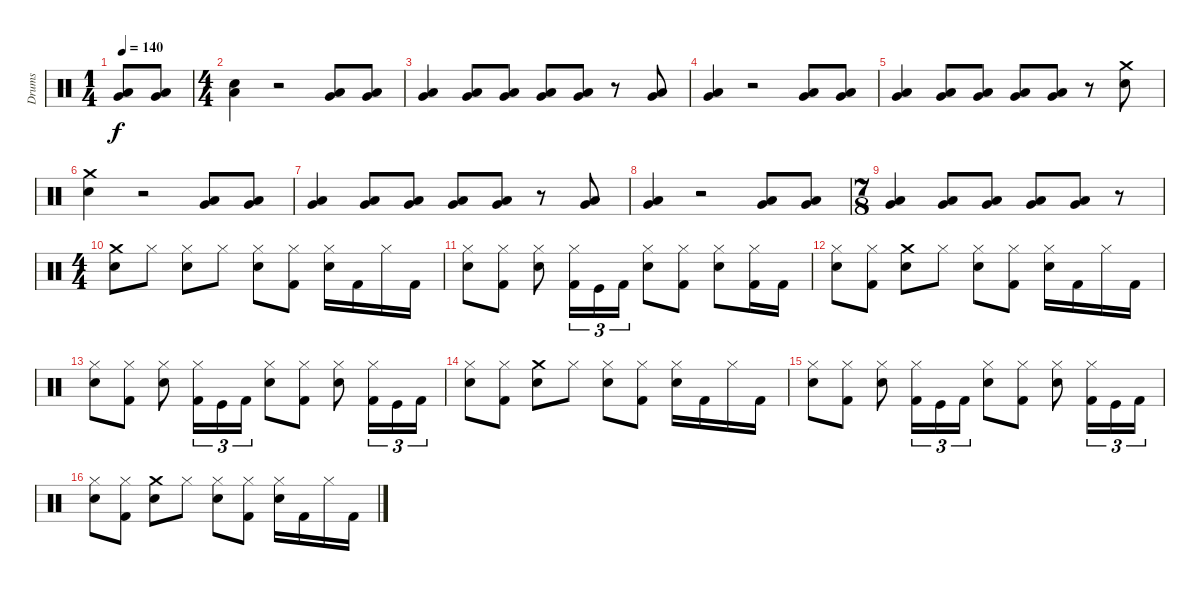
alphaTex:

\track ("Drums" "Drums") {instrument percussion}
\staff {score}
\articulation defaults
\ts (1 4)
\tempo 140
\clef neutral
\ks c
("Very Low Tom (hit)" "Low Tom (hit)").8{dy f} ("Very Low Tom (hit)" "Low Tom (hit)").8 |
\ts (4 4)
("Snare (hit) 2" "Low Tom (hit)").4 r.2 ("Very Low Tom (hit)" "Low Tom (hit)").8 ("Very Low Tom (hit)" "Low Tom (hit)").8 |
("Very Low Tom (hit)" "Low Tom (hit)").4 ("Very Low Tom (hit)" "Low Tom (hit)").8 ("Very Low Tom (hit)" "Low Tom (hit)").8 ("Very Low Tom (hit)" "Low Tom (hit)").8 ("Very Low Tom (hit)" "Low Tom (hit)").8 r.8 ("Very Low Tom (hit)" "Low Tom (hit)").8 |
("Very Low Tom (hit)" "Low Tom (hit)").4 r.2 ("Very Low Tom (hit)" "Low Tom (hit)").8 ("Very Low Tom (hit)" "Low Tom (hit)").8 |
("Very Low Tom (hit)" "Low Tom (hit)").4 ("Very Low Tom (hit)" "Low Tom (hit)").8 ("Very Low Tom (hit)" "Low Tom (hit)").8 ("Very Low Tom (hit)" "Low Tom (hit)").8 ("Very Low Tom (hit)" "Low Tom (hit)").8 r.8 ("Snare (hit) 2" "Crash medium (hit)").8 |
("Snare (hit) 2" "Crash medium (hit)").4 r.2 ("Very Low Tom (hit)" "Low Tom (hit)").8 ("Very Low Tom (hit)" "Low Tom (hit)").8 |
("Very Low Tom (hit)" "Low Tom (hit)").4 ("Very Low Tom (hit)" "Low Tom (hit)").8 ("Very Low Tom (hit)" "Low Tom (hit)").8 ("Very Low Tom (hit)" "Low Tom (hit)").8 ("Very Low Tom (hit)" "Low Tom (hit)").8 r.8 ("Very Low Tom (hit)" "Low Tom (hit)").8 |
("Very Low Tom (hit)" "Low Tom (hit)").4 r.2 ("Very Low Tom (hit)" "Low Tom (hit)").8 ("Very Low Tom (hit)" "Low Tom (hit)").8 |
\ts (7 8)
("Very Low Tom (hit)" "Low Tom (hit)").4 ("Very Low Tom (hit)" "Low Tom (hit)").8 ("Very Low Tom (hit)" "Low Tom (hit)").8 ("Very Low Tom (hit)" "Low Tom (hit)").8 ("Very Low Tom (hit)" "Low Tom (hit)").8 r.8 |
\ts (4 4)
("Snare (hit) 2" "Crash medium (hit)").8 "Hi-Hat (closed)".8 ("Snare (hit) 2" "Hi-Hat (closed)").8 "Hi-Hat (closed)".8 ("Snare (hit) 2" "Hi-Hat (closed)").8 ("Hi-Hat (closed)" "Kick (hit) 2").8 ("Snare (hit) 2" "Hi-Hat (closed)").16 "Kick (hit) 2".16 "Hi-Hat (closed)".16 "Kick (hit) 2".16 |
("Hi-Hat (closed)" "Snare (hit) 2").8 ("Hi-Hat (closed)" "Kick (hit) 2").8 ("Snare (hit) 2" "Hi-Hat (closed)").8 ("Hi-Hat (closed)" "Kick (hit) 2").16{tu (3 2)} "Kick (hit)".16{tu (3 2)} "Kick (hit) 2".16{tu (3 2)} ("Hi-Hat (closed)" "Snare (hit) 2").8 ("Hi-Hat (closed)" "Kick (hit) 2").8 ("Snare (hit) 2" "Hi-Hat (closed)").8 ("Hi-Hat (closed)" "Kick (hit) 2").16 "Kick (hit) 2".16 |
("Hi-Hat (closed)" "Snare (hit) 2").8 ("Kick (hit) 2" "Hi-Hat (closed)").8 ("Crash medium (hit)" "Snare (hit) 2").8 "Hi-Hat (closed)".8 ("Snare (hit) 2" "Hi-Hat (closed)").8 ("Hi-Hat (closed)" "Kick (hit) 2").8 ("Snare (hit) 2" "Hi-Hat (closed)").16 "Kick (hit) 2".16 "Hi-Hat (closed)".16 "Kick (hit) 2".16 |
("Hi-Hat (closed)" "Snare (hit) 2").8 ("Kick (hit) 2" "Hi-Hat (closed)").8 ("Snare (hit) 2" "Hi-Hat (closed)").8 ("Hi-Hat (closed)" "Kick (hit) 2").16{tu (3 2)} "Kick (hit)".16{tu (3 2)} "Kick (hit) 2".16{tu (3 2)} ("Snare (hit) 2" "Hi-Hat (closed)").8 ("Kick (hit) 2" "Hi-Hat (closed)").8 ("Snare (hit) 2" "Hi-Hat (closed)").8 ("Hi-Hat (closed)" "Kick (hit) 2").16{tu (3 2)} "Kick (hit)".16{tu (3 2)} "Kick (hit) 2".16{tu (3 2)} |
("Hi-Hat (closed)" "Snare (hit) 2").8 ("Kick (hit) 2" "Hi-Hat (closed)").8 ("Crash medium (hit)" "Snare (hit) 2").8 "Hi-Hat (closed)".8 ("Snare (hit) 2" "Hi-Hat (closed)").8 ("Hi-Hat (closed)" "Kick (hit) 2").8 ("Snare (hit) 2" "Hi-Hat (closed)").16 "Kick (hit) 2".16 "Hi-Hat (closed)".16 "Kick (hit) 2".16 |
("Hi-Hat (closed)" "Snare (hit) 2").8 ("Kick (hit) 2" "Hi-Hat (closed)").8 ("Snare (hit) 2" "Hi-Hat (closed)").8 ("Hi-Hat (closed)" "Kick (hit) 2").16{tu (3 2)} "Kick (hit)".16{tu (3 2)} "Kick (hit) 2".16{tu (3 2)} ("Snare (hit) 2" "Hi-Hat (closed)").8 ("Kick (hit) 2" "Hi-Hat (closed)").8 ("Snare (hit) 2" "Hi-Hat (closed)").8 ("Hi-Hat (closed)" "Kick (hit) 2").16{tu (3 2)} "Kick (hit)".16{tu (3 2)} "Kick (hit) 2".16{tu (3 2)} |
("Hi-Hat (closed)" "Snare (hit) 2").8 ("Kick (hit) 2" "Hi-Hat (closed)").8 ("Crash medium (hit)" "Snare (hit) 2").8 "Hi-Hat (closed)".8 ("Snare (hit) 2" "Hi-Hat (closed)").8 ("Hi-Hat (closed)" "Kick (hit) 2").8 ("Snare (hit) 2" "Hi-Hat (closed)").16 "Kick (hit) 2".16 "Hi-Hat (closed)".16 "Kick (hit) 2".16
